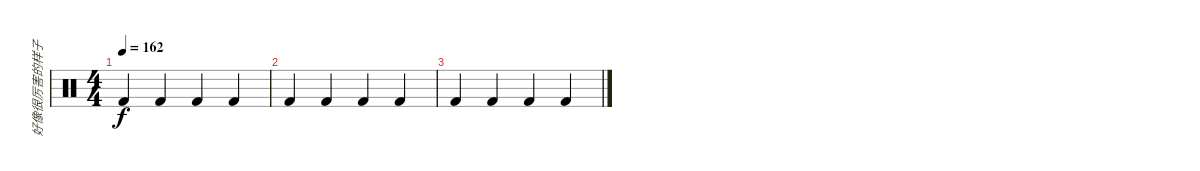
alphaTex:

\track ("好像很厉害的样子" "好像很厉害的样子") {instrument percussion}
\staff {score}
\articulation defaults
\ts (4 4)
\tempo 162
\clef neutral
\ks c "Kick (hit) 2".4{dy f} "Kick (hit) 2".4 "Kick (hit) 2".4 "Kick (hit) 2".4
|
"Kick (hit) 2".4 "Kick (hit) 2".4 "Kick (hit) 2".4 "Kick (hit) 2".4 |
"Kick (hit) 2".4 "Kick (hit) 2".4 "Kick (hit) 2".4 "Kick (hit) 2".4
